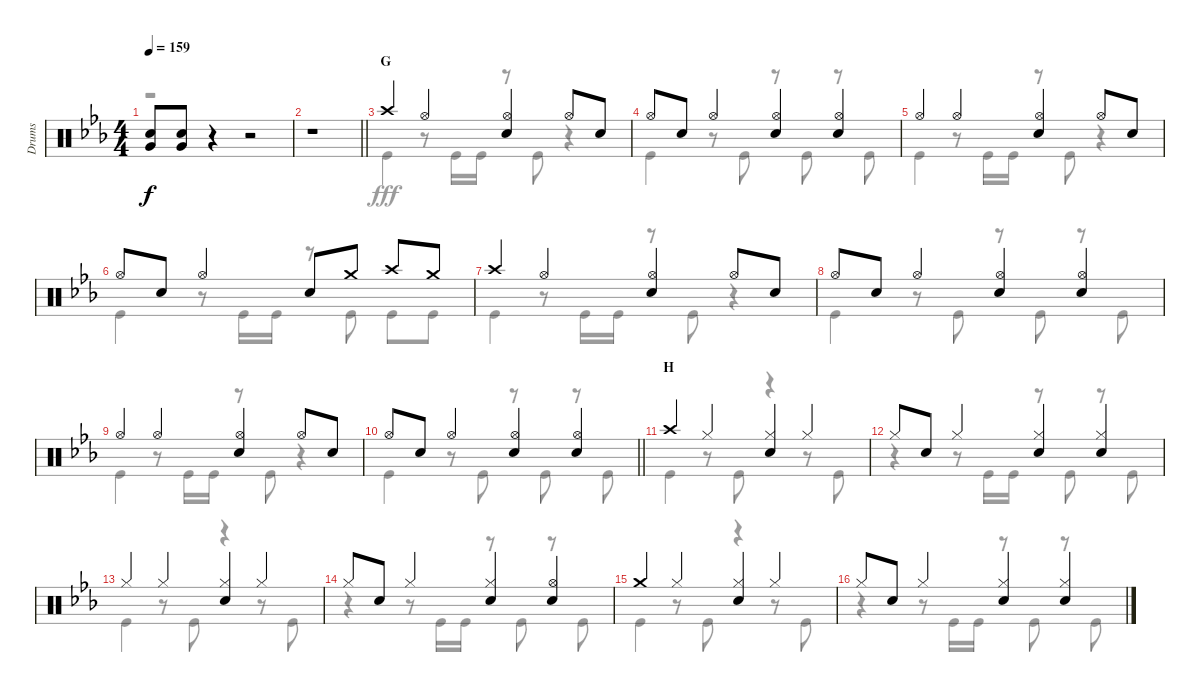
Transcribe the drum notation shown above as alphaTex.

\track ("Drums" "Drums") {instrument percussion}
\staff {score}
\articulation defaults
\voice
\ts (4 4)
\tempo 159
\clef neutral
\ks eb
("Snare (hit) 2" "Very Low Tom (hit)").8{dy f} ("Snare (hit) 2" "Very Low Tom (hit)").8 r.4 r.2 |
\barLineRight lightlight
r.1 |
\section ("" "G")
"Crash high (hit)".4 "Hi-Hat (open)".4 ("Hi-Hat (open)" "Snare (hit) 2").4 "Hi-Hat (open)".8 "Snare (hit) 2".8 |
"Hi-Hat (open)".8 "Snare (hit) 2".8 "Hi-Hat (open)".4 ("Hi-Hat (open)" "Snare (hit) 2").4 ("Hi-Hat (open)" "Snare (hit) 2").4 |
"Hi-Hat (open)".4 "Hi-Hat (open)".4 ("Hi-Hat (open)" "Snare (hit) 2").4 "Hi-Hat (open)".8 "Snare (hit) 2".8 |
"Hi-Hat (open)".8 "Snare (hit) 2".8 "Hi-Hat (open)".4 "Snare (hit) 2".8 "Crash medium (hit)".8 "Crash high (hit)".8 "Crash medium (hit)".8 |
"Crash high (hit)".4 "Hi-Hat (open)".4 ("Hi-Hat (open)" "Snare (hit) 2").4 "Hi-Hat (open)".8 "Snare (hit) 2".8 |
"Hi-Hat (open)".8 "Snare (hit) 2".8 "Hi-Hat (open)".4 ("Hi-Hat (open)" "Snare (hit) 2").4 ("Hi-Hat (open)" "Snare (hit) 2").4 |
"Hi-Hat (open)".4 "Hi-Hat (open)".4 ("Hi-Hat (open)" "Snare (hit) 2").4 "Hi-Hat (open)".8 "Snare (hit) 2".8 |
\barLineRight lightlight "Hi-Hat (open)".8 "Snare (hit) 2".8 "Hi-Hat (open)".4
("Hi-Hat (open)" "Snare (hit) 2").4 ("Hi-Hat (open)" "Snare (hit) 2").4 |
\section ("" "H")
"Crash high (hit)".4 "Hi-Hat (closed)".4 ("Hi-Hat (closed)" "Snare (hit) 2").4 "Hi-Hat (closed)".4 |
"Hi-Hat (closed)".8 "Snare (hit) 2".8 "Hi-Hat (closed)".4 ("Hi-Hat (closed)" "Snare (hit) 2").4 ("Hi-Hat (closed)" "Snare (hit) 2").4 |
"Hi-Hat (closed)".4 "Hi-Hat (closed)".4 ("Hi-Hat (closed)" "Snare (hit) 2").4 "Hi-Hat (closed)".4 |
"Hi-Hat (closed)".8 "Snare (hit) 2".8 "Hi-Hat (closed)".4 ("Hi-Hat (closed)" "Snare (hit) 2").4 ("Hi-Hat (open)" "Snare (hit) 2").4 |
"Crash medium (hit)".4 "Hi-Hat (closed)".4 ("Hi-Hat (closed)" "Snare (hit) 2").4 "Hi-Hat (closed)".4 |
"Hi-Hat (closed)".8 "Snare (hit) 2".8 "Hi-Hat (closed)".4 ("Hi-Hat (closed)" "Snare (hit) 2").4 ("Hi-Hat (closed)" "Snare (hit) 2").4
\voice
\clef neutral
\ottava regular
\simile none
\ks eb
r.1{dy fff} |
\barLineRight lightlight
r.1 |
"Kick (hit)".4 r.8 "Kick (hit)".16 "Kick (hit)".16 r.8 "Kick (hit)".8 r.4 |
"Kick (hit)".4 r.8 "Kick (hit)".8 r.8 "Kick (hit)".8 r.8 "Kick (hit)".8 |
"Kick (hit)".4 r.8 "Kick (hit)".16 "Kick (hit)".16 r.8 "Kick (hit)".8 r.4 |
"Kick (hit)".4 r.8 "Kick (hit)".16 "Kick (hit)".16 r.8 "Kick (hit)".8 "Kick (hit)".8 "Kick (hit)".8 |
"Kick (hit)".4 r.8 "Kick (hit)".16 "Kick (hit)".16 r.8 "Kick (hit)".8 r.4 |
"Kick (hit)".4 r.8 "Kick (hit)".8 r.8 "Kick (hit)".8 r.8 "Kick (hit)".8 |
"Kick (hit)".4 r.8 "Kick (hit)".16 "Kick (hit)".16 r.8 "Kick (hit)".8 r.4 |
\barLineRight lightlight "Kick (hit)".4
r.8 "Kick (hit)".8 r.8 "Kick (hit)".8 r.8 "Kick (hit)".8 |
"Kick (hit)".4 r.8 "Kick (hit)".8 r.4 r.8 "Kick (hit)".8 |
r.4 r.8 "Kick (hit)".16 "Kick (hit)".16 r.8 "Kick (hit)".8 r.8 "Kick (hit)".8 |
"Kick (hit)".4 r.8 "Kick (hit)".8 r.4 r.8 "Kick (hit)".8 |
r.4 r.8 "Kick (hit)".16 "Kick (hit)".16 r.8 "Kick (hit)".8 r.8 "Kick (hit)".8 |
"Kick (hit)".4 r.8 "Kick (hit)".8 r.4 r.8 "Kick (hit)".8 |
r.4 r.8 "Kick (hit)".16 "Kick (hit)".16 r.8 "Kick (hit)".8 r.8 "Kick (hit)".8
